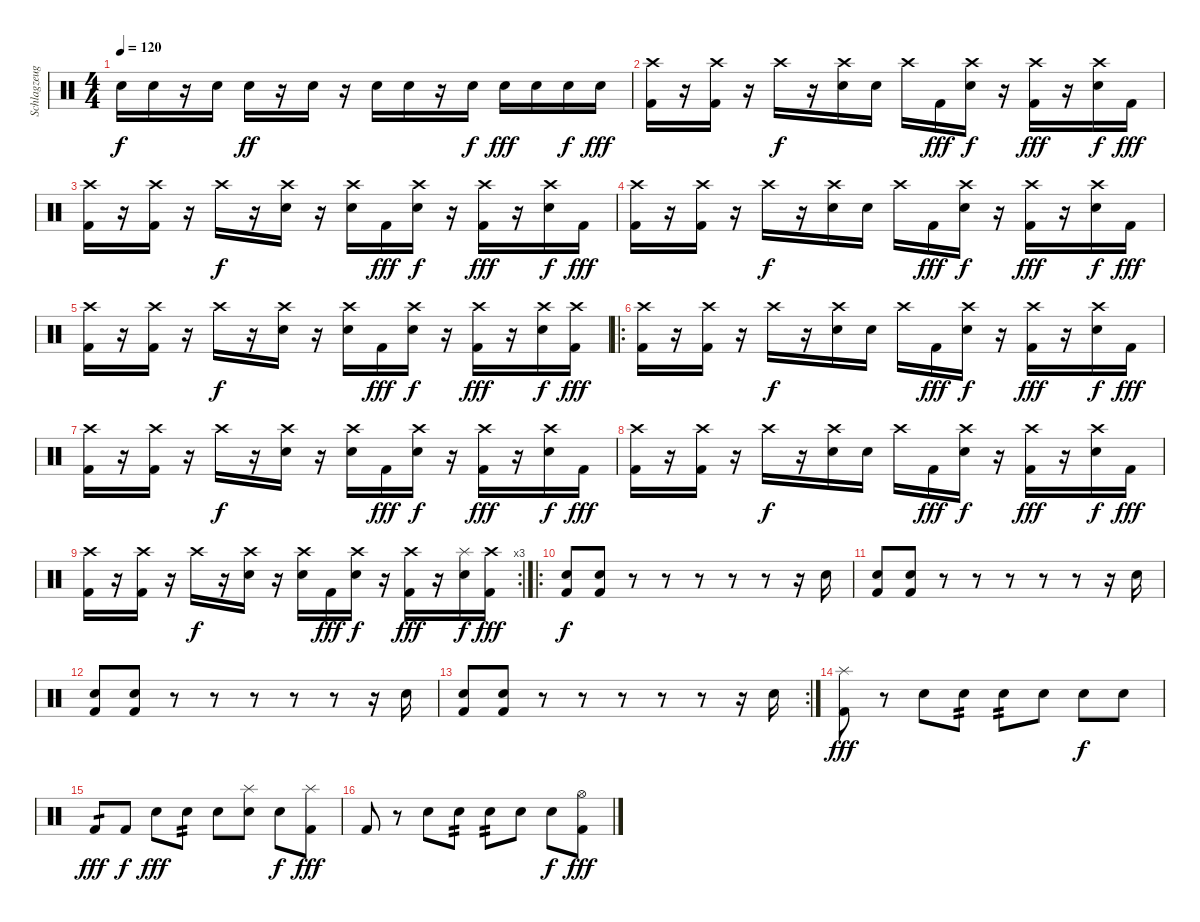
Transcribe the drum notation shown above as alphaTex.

\track ("Schlagzeug" "Schlagzeug") {instrument percussion}
\staff {score}
\articulation defaults
\ts (4 4)
\tempo 120
\clef neutral
\ks c "Snare (hit) 2".16{dy f} "Snare (hit) 2".16
r.16 "Snare (hit) 2".16 "Snare (hit) 2".16{dy ff} r.16 "Snare (hit) 2".16 r.16 "Snare (hit) 2".16 "Snare (hit) 2".16 r.16 "Snare (hit) 2".16{dy f} "Snare (hit) 2".16{dy fff} "Snare (hit) 2".16 "Snare (hit) 2".16{dy f} "Snare (hit) 2".16{dy fff} |
("Crash high (hit)" "Kick (hit) 2").16 r.16 ("Crash high (hit)" "Kick (hit) 2").16 r.16 "Crash high (hit)".16{dy f} r.16 ("Crash high (hit)" "Snare (hit) 2").16 "Snare (hit) 2".16 "Crash high (hit)".16 "Kick (hit) 2".16{dy fff} ("Crash high (hit)" "Snare (hit) 2").16{dy f} r.16 ("Crash high (hit)" "Kick (hit) 2").16{dy fff} r.16 ("Crash high (hit)" "Snare (hit) 2").16{dy f} "Kick (hit) 2".16{dy fff} |
("Crash high (hit)" "Kick (hit) 2").16 r.16 ("Crash high (hit)" "Kick (hit) 2").16 r.16 "Crash high (hit)".16{dy f} r.16 ("Crash high (hit)" "Snare (hit) 2").16 r.16 ("Crash high (hit)" "Snare (hit) 2").16 "Kick (hit) 2".16{dy fff} ("Crash high (hit)" "Snare (hit) 2").16{dy f} r.16 ("Crash high (hit)" "Kick (hit) 2").16{dy fff} r.16 ("Crash high (hit)" "Snare (hit) 2").16{dy f} "Kick (hit) 2".16{dy fff} |
("Crash high (hit)" "Kick (hit) 2").16 r.16 ("Crash high (hit)" "Kick (hit) 2").16 r.16 "Crash high (hit)".16{dy f} r.16 ("Crash high (hit)" "Snare (hit) 2").16 "Snare (hit) 2".16 "Crash high (hit)".16 "Kick (hit) 2".16{dy fff} ("Crash high (hit)" "Snare (hit) 2").16{dy f} r.16 ("Crash high (hit)" "Kick (hit) 2").16{dy fff} r.16 ("Crash high (hit)" "Snare (hit) 2").16{dy f} "Kick (hit) 2".16{dy fff} |
("Crash high (hit)" "Kick (hit) 2").16 r.16 ("Crash high (hit)" "Kick (hit) 2").16 r.16 "Crash high (hit)".16{dy f} r.16 ("Crash high (hit)" "Snare (hit) 2").16 r.16 ("Crash high (hit)" "Snare (hit) 2").16 "Kick (hit) 2".16{dy fff} ("Crash high (hit)" "Snare (hit) 2").16{dy f} r.16 ("Crash high (hit)" "Kick (hit) 2").16{dy fff} r.16 ("Crash high (hit)" "Snare (hit) 2").16{dy f} ("Crash high (hit)" "Kick (hit) 2").16{dy fff} |
\ro
("Crash high (hit)" "Kick (hit) 2").16 r.16 ("Crash high (hit)" "Kick (hit) 2").16 r.16 "Crash high (hit)".16{dy f} r.16 ("Crash high (hit)" "Snare (hit) 2").16 "Snare (hit) 2".16 "Crash high (hit)".16 "Kick (hit) 2".16{dy fff} ("Crash high (hit)" "Snare (hit) 2").16{dy f} r.16 ("Crash high (hit)" "Kick (hit) 2").16{dy fff} r.16 ("Crash high (hit)" "Snare (hit) 2").16{dy f} "Kick (hit) 2".16{dy fff} |
("Crash high (hit)" "Kick (hit) 2").16 r.16 ("Crash high (hit)" "Kick (hit) 2").16 r.16 "Crash high (hit)".16{dy f} r.16 ("Crash high (hit)" "Snare (hit) 2").16 r.16 ("Crash high (hit)" "Snare (hit) 2").16 "Kick (hit) 2".16{dy fff} ("Crash high (hit)" "Snare (hit) 2").16{dy f} r.16 ("Crash high (hit)" "Kick (hit) 2").16{dy fff} r.16 ("Crash high (hit)" "Snare (hit) 2").16{dy f} "Kick (hit) 2".16{dy fff} |
("Crash high (hit)" "Kick (hit) 2").16 r.16 ("Crash high (hit)" "Kick (hit) 2").16 r.16 "Crash high (hit)".16{dy f} r.16 ("Crash high (hit)" "Snare (hit) 2").16 "Snare (hit) 2".16 "Crash high (hit)".16 "Kick (hit) 2".16{dy fff} ("Crash high (hit)" "Snare (hit) 2").16{dy f} r.16 ("Crash high (hit)" "Kick (hit) 2").16{dy fff} r.16 ("Crash high (hit)" "Snare (hit) 2").16{dy f} "Kick (hit) 2".16{dy fff} |
\rc 3
("Crash high (hit)" "Kick (hit) 2").16 r.16 ("Crash high (hit)" "Kick (hit) 2").16 r.16 "Crash high (hit)".16{dy f} r.16 ("Crash high (hit)" "Snare (hit) 2").16 r.16 ("Crash high (hit)" "Snare (hit) 2").16 "Kick (hit) 2".16{dy fff} ("Crash high (hit)" "Snare (hit) 2").16{dy f} r.16 ("Crash high (hit)" "Kick (hit) 2").16{dy fff} r.16 ("Splash (hit)" "Snare (hit) 2").16{dy f} ("Crash high (hit)" "Kick (hit) 2").16{dy fff} |
\ro
("Snare (hit) 2" "Kick (hit) 2").8{dy f} ("Snare (hit) 2" "Kick (hit) 2").8 r.8 r.8 r.8 r.8 r.8 r.16 "Snare (hit) 2".16 |
("Snare (hit) 2" "Kick (hit) 2").8 ("Snare (hit) 2" "Kick (hit) 2").8 r.8 r.8 r.8 r.8 r.8 r.16 "Snare (hit) 2".16 |
("Snare (hit) 2" "Kick (hit) 2").8 ("Snare (hit) 2" "Kick (hit) 2").8 r.8 r.8 r.8 r.8 r.8 r.16 "Snare (hit) 2".16 |
\rc 2
("Snare (hit) 2" "Kick (hit) 2").8 ("Snare (hit) 2" "Kick (hit) 2").8 r.8 r.8 r.8 r.8 r.8 r.16 "Snare (hit) 2".16 |
("Kick (hit) 2" "Splash (hit)").8{dy fff} r.8 "Snare (hit) 2".8 "Snare (hit) 2".8{tp 2} "Snare (hit) 2".8{tp 2} "Snare (hit) 2".8 "Snare (hit) 2".8{dy f} "Snare (hit) 2".8 |
"Kick (hit) 2".8{tp 1 dy fff} "Kick (hit) 2".8{dy f} "Snare (hit) 2".8{dy fff} "Snare (hit) 2".8{tp 2} "Snare (hit) 2".8 ("Snare (hit) 2" "Splash (hit)").8 "Snare (hit) 2".8{dy f} ("Kick (hit) 2" "Splash (hit)").8{dy fff} |
"Kick (hit) 2".8 r.8 "Snare (hit) 2".8 "Snare (hit) 2".8{tp 2} "Snare (hit) 2".8{tp 2} "Snare (hit) 2".8 "Snare (hit) 2".8{dy f} ("Kick (hit) 2" "Hi-Hat (open)").8{dy fff}
